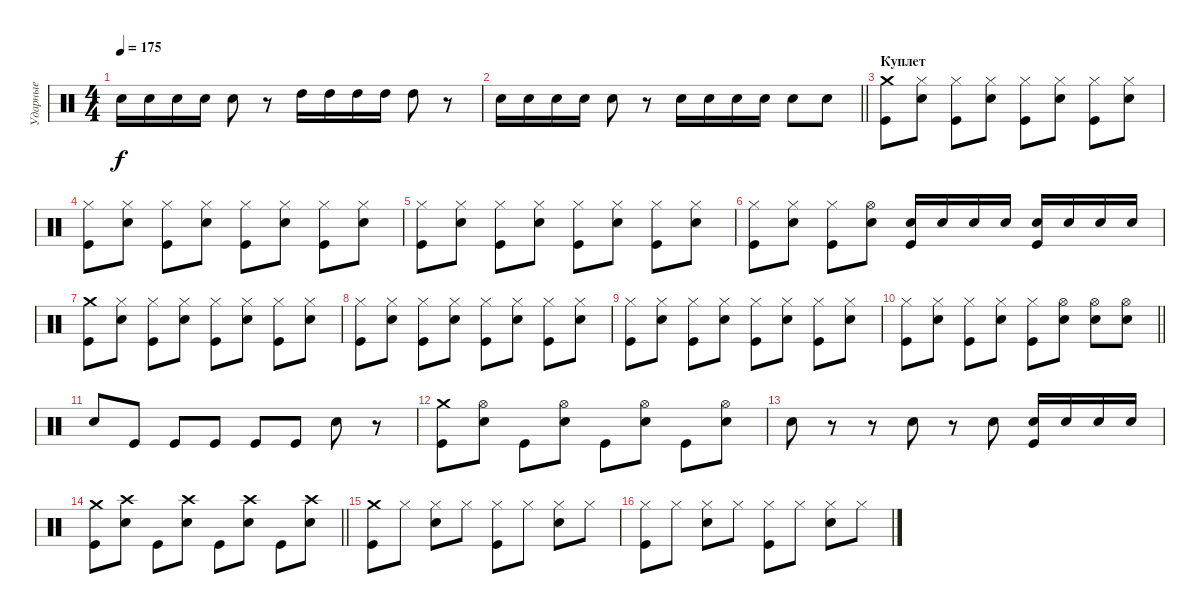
\track ("Ударные" "Ударные") {instrument percussion}
\staff {score}
\articulation defaults
\ts (4 4)
\tempo 175
\clef neutral
\ks c "Electric Snare (hit)".16{dy f} "Electric Snare (hit)".16 "Electric Snare (hit)".16 "Electric Snare (hit)".16 "Electric Snare (hit)".8
r.8 "High Tom (hit)".16 "High Tom (hit)".16 "High Tom (hit)".16 "High Tom (hit)".16 "High Tom (hit)".8 r.8 |
\barLineRight lightlight "Electric Snare (hit)".16 "Electric Snare (hit)".16 "Electric Snare (hit)".16 "Electric Snare (hit)".16 "Electric Snare (hit)".8
r.8 "Electric Snare (hit)".16 "Electric Snare (hit)".16 "Electric Snare (hit)".16 "Electric Snare (hit)".16 "Electric Snare (hit)".8 "Electric Snare (hit)".8 |
\section ("" "Куплет")
("Crash medium (hit)" "Kick (hit)").8 ("Hi-Hat (closed)" "Electric Snare (hit)").8 ("Hi-Hat (closed)" "Kick (hit)").8 ("Hi-Hat (closed)" "Electric Snare (hit)").8 ("Hi-Hat (closed)" "Kick (hit)").8 ("Hi-Hat (closed)" "Electric Snare (hit)").8 ("Hi-Hat (closed)" "Kick (hit)").8 ("Hi-Hat (closed)" "Electric Snare (hit)").8 |
("Hi-Hat (closed)" "Kick (hit)").8 ("Hi-Hat (closed)" "Electric Snare (hit)").8 ("Hi-Hat (closed)" "Kick (hit)").8 ("Hi-Hat (closed)" "Electric Snare (hit)").8 ("Hi-Hat (closed)" "Kick (hit)").8 ("Hi-Hat (closed)" "Electric Snare (hit)").8 ("Hi-Hat (closed)" "Kick (hit)").8 ("Hi-Hat (closed)" "Electric Snare (hit)").8 |
("Hi-Hat (closed)" "Kick (hit)").8 ("Hi-Hat (closed)" "Electric Snare (hit)").8 ("Hi-Hat (closed)" "Kick (hit)").8 ("Hi-Hat (closed)" "Electric Snare (hit)").8 ("Hi-Hat (closed)" "Kick (hit)").8 ("Hi-Hat (closed)" "Electric Snare (hit)").8 ("Hi-Hat (closed)" "Kick (hit)").8 ("Hi-Hat (closed)" "Electric Snare (hit)").8 |
("Hi-Hat (closed)" "Kick (hit)").8 ("Hi-Hat (closed)" "Electric Snare (hit)").8 ("Hi-Hat (closed)" "Kick (hit)").8 ("Hi-Hat (open)" "Electric Snare (hit)").8 ("Electric Snare (hit)" "Kick (hit)").16 "Electric Snare (hit)".16 "Electric Snare (hit)".16 "Electric Snare (hit)".16 ("Electric Snare (hit)" "Kick (hit)").16 "Electric Snare (hit)".16 "Electric Snare (hit)".16 "Electric Snare (hit)".16 |
("Crash medium (hit)" "Kick (hit)").8 ("Hi-Hat (closed)" "Electric Snare (hit)").8 ("Hi-Hat (closed)" "Kick (hit)").8 ("Hi-Hat (closed)" "Electric Snare (hit)").8 ("Hi-Hat (closed)" "Kick (hit)").8 ("Hi-Hat (closed)" "Electric Snare (hit)").8 ("Hi-Hat (closed)" "Kick (hit)").8 ("Hi-Hat (closed)" "Electric Snare (hit)").8 |
("Hi-Hat (closed)" "Kick (hit)").8 ("Hi-Hat (closed)" "Electric Snare (hit)").8 ("Hi-Hat (closed)" "Kick (hit)").8 ("Hi-Hat (closed)" "Electric Snare (hit)").8 ("Hi-Hat (closed)" "Kick (hit)").8 ("Hi-Hat (closed)" "Electric Snare (hit)").8 ("Hi-Hat (closed)" "Kick (hit)").8 ("Hi-Hat (closed)" "Electric Snare (hit)").8 |
("Hi-Hat (closed)" "Kick (hit)").8 ("Hi-Hat (closed)" "Electric Snare (hit)").8 ("Hi-Hat (closed)" "Kick (hit)").8 ("Hi-Hat (closed)" "Electric Snare (hit)").8 ("Hi-Hat (closed)" "Kick (hit)").8 ("Hi-Hat (closed)" "Electric Snare (hit)").8 ("Hi-Hat (closed)" "Kick (hit)").8 ("Hi-Hat (closed)" "Electric Snare (hit)").8 |
\barLineRight lightlight
("Hi-Hat (closed)" "Kick (hit)").8 ("Hi-Hat (closed)" "Electric Snare (hit)").8 ("Hi-Hat (closed)" "Kick (hit)").8 ("Hi-Hat (closed)" "Electric Snare (hit)").8 ("Hi-Hat (closed)" "Kick (hit)").8 ("Hi-Hat (open)" "Electric Snare (hit)").8 ("Hi-Hat (open)" "Electric Snare (hit)").8 ("Hi-Hat (open)" "Electric Snare (hit)").8 |
\section ("" " ")
"Electric Snare (hit)".8 "Kick (hit)".8 "Kick (hit)".8 "Kick (hit)".8 "Kick (hit)".8 "Kick (hit)".8 "Electric Snare (hit)".8 r.8 |
("Crash medium (hit)" "Kick (hit)").8 ("Hi-Hat (open)" "Electric Snare (hit)").8 "Kick (hit)".8 ("Hi-Hat (open)" "Electric Snare (hit)").8 "Kick (hit)".8 ("Hi-Hat (open)" "Electric Snare (hit)").8 "Kick (hit)".8 ("Hi-Hat (open)" "Electric Snare (hit)").8 |
"Electric Snare (hit)".8 r.8 r.8 "Electric Snare (hit)".8 r.8 "Electric Snare (hit)".8 ("Electric Snare (hit)" "Kick (hit)").16 "Electric Snare (hit)".16 "Electric Snare (hit)".16 "Electric Snare (hit)".16 |
\barLineRight lightlight
("Crash medium (hit)" "Kick (hit)").8 ("Crash high (hit)" "Electric Snare (hit)").8 "Kick (hit)".8 ("Crash high (hit)" "Electric Snare (hit)").8 "Kick (hit)".8 ("Crash high (hit)" "Electric Snare (hit)").8 "Kick (hit)".8 ("Crash high (hit)" "Electric Snare (hit)").8 |
\section ("" " ")
("Crash medium (hit)" "Kick (hit)").8 "Hi-Hat (closed)".8 ("Hi-Hat (closed)" "Electric Snare (hit)").8 "Hi-Hat (closed)".8 ("Hi-Hat (closed)" "Kick (hit)").8 "Hi-Hat (closed)".8 ("Hi-Hat (closed)" "Electric Snare (hit)").8 "Hi-Hat (closed)".8 |
("Hi-Hat (closed)" "Kick (hit)").8 "Hi-Hat (closed)".8 ("Hi-Hat (closed)" "Electric Snare (hit)").8 "Hi-Hat (closed)".8 ("Hi-Hat (closed)" "Kick (hit)").8 "Hi-Hat (closed)".8 ("Hi-Hat (closed)" "Electric Snare (hit)").8 "Hi-Hat (closed)".8
